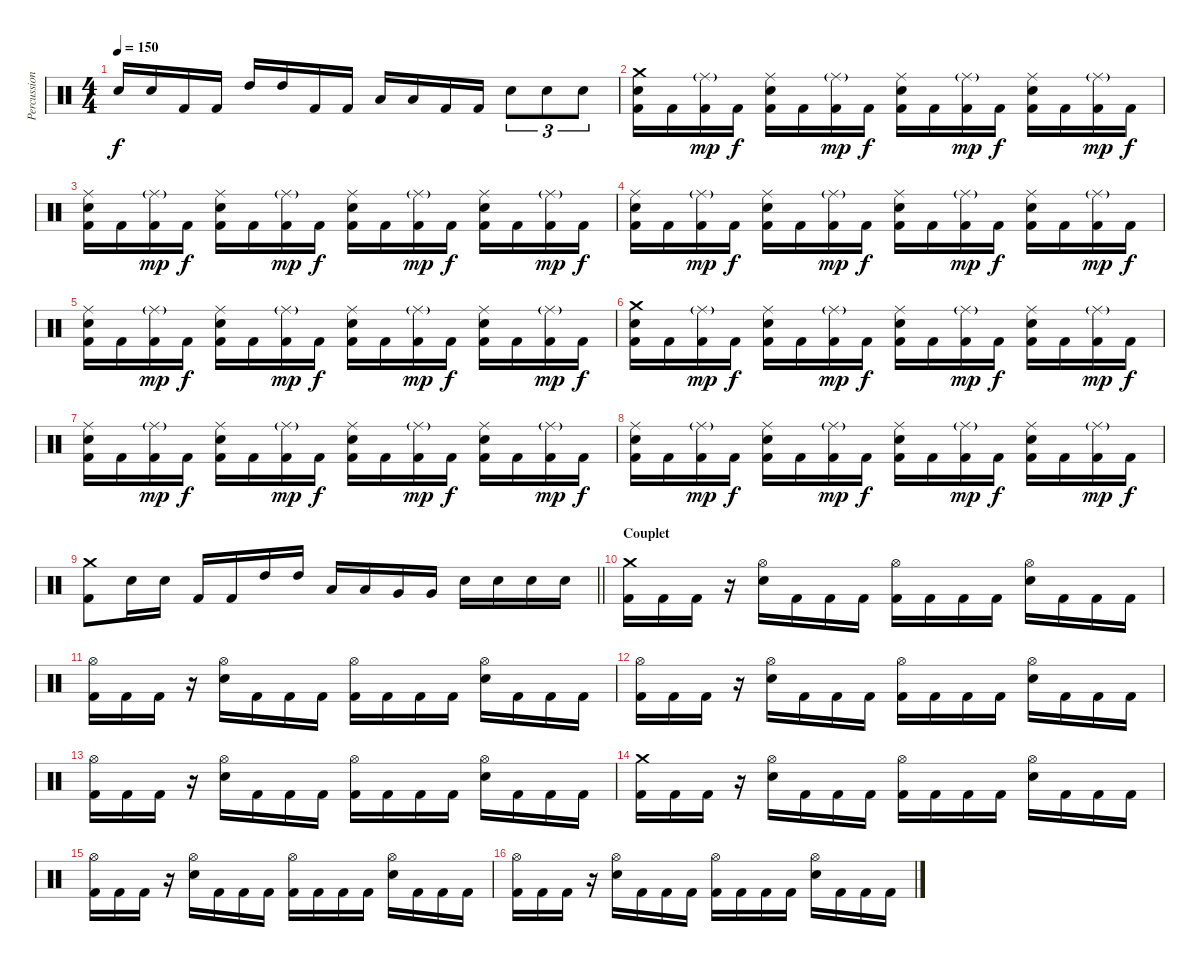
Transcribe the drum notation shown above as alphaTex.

\track ("Percussions" "Percussion") {instrument percussion}
\staff {score}
\articulation defaults
\ts (4 4)
\tempo 150
\clef neutral
\ks c "Snare (hit) 2".16{dy f} "Snare (hit) 2".16 "Kick (hit) 2".16 "Kick (hit) 2".16 "High Tom (hit)".16 "High Tom (hit)".16 "Kick (hit) 2".16 "Kick (hit) 2".16 "Low Tom (hit)".16 "Low Tom (hit)".16 "Kick (hit) 2".16 "Kick (hit) 2".16 "Snare (hit) 2".8{tu (3 2)} "Snare (hit) 2".8{tu (3 2)} "Snare (hit) 2".8{tu (3 2)}
|
("Crash medium (hit)" "Snare (hit) 2" "Kick (hit) 2").16 "Kick (hit) 2".16 ("Ride (middle)"{g} "Kick (hit) 2").16{dy mp} "Kick (hit) 2".16{dy f} ("Ride (middle)" "Snare (hit) 2" "Kick (hit) 2").16 "Kick (hit) 2".16 ("Ride (middle)"{g} "Kick (hit) 2").16{dy mp} "Kick (hit) 2".16{dy f} ("Ride (middle)" "Snare (hit) 2" "Kick (hit) 2").16 "Kick (hit) 2".16 ("Ride (middle)"{g} "Kick (hit) 2").16{dy mp} "Kick (hit) 2".16{dy f} ("Ride (middle)" "Snare (hit) 2" "Kick (hit) 2").16 "Kick (hit) 2".16 ("Ride (middle)"{g} "Kick (hit) 2").16{dy mp} "Kick (hit) 2".16{dy f} |
("Ride (middle)" "Snare (hit) 2" "Kick (hit) 2").16 "Kick (hit) 2".16 ("Ride (middle)"{g} "Kick (hit) 2").16{dy mp} "Kick (hit) 2".16{dy f} ("Ride (middle)" "Snare (hit) 2" "Kick (hit) 2").16 "Kick (hit) 2".16 ("Ride (middle)"{g} "Kick (hit) 2").16{dy mp} "Kick (hit) 2".16{dy f} ("Ride (middle)" "Snare (hit) 2" "Kick (hit) 2").16 "Kick (hit) 2".16 ("Ride (middle)"{g} "Kick (hit) 2").16{dy mp} "Kick (hit) 2".16{dy f} ("Ride (middle)" "Snare (hit) 2" "Kick (hit) 2").16 "Kick (hit) 2".16 ("Ride (middle)"{g} "Kick (hit) 2").16{dy mp} "Kick (hit) 2".16{dy f} |
("Ride (middle)" "Snare (hit) 2" "Kick (hit) 2").16 "Kick (hit) 2".16 ("Ride (middle)"{g} "Kick (hit) 2").16{dy mp} "Kick (hit) 2".16{dy f} ("Ride (middle)" "Snare (hit) 2" "Kick (hit) 2").16 "Kick (hit) 2".16 ("Ride (middle)"{g} "Kick (hit) 2").16{dy mp} "Kick (hit) 2".16{dy f} ("Ride (middle)" "Snare (hit) 2" "Kick (hit) 2").16 "Kick (hit) 2".16 ("Ride (middle)"{g} "Kick (hit) 2").16{dy mp} "Kick (hit) 2".16{dy f} ("Ride (middle)" "Snare (hit) 2" "Kick (hit) 2").16 "Kick (hit) 2".16 ("Ride (middle)"{g} "Kick (hit) 2").16{dy mp} "Kick (hit) 2".16{dy f} |
("Ride (middle)" "Snare (hit) 2" "Kick (hit) 2").16 "Kick (hit) 2".16 ("Ride (middle)"{g} "Kick (hit) 2").16{dy mp} "Kick (hit) 2".16{dy f} ("Ride (middle)" "Snare (hit) 2" "Kick (hit) 2").16 "Kick (hit) 2".16 ("Ride (middle)"{g} "Kick (hit) 2").16{dy mp} "Kick (hit) 2".16{dy f} ("Ride (middle)" "Snare (hit) 2" "Kick (hit) 2").16 "Kick (hit) 2".16 ("Ride (middle)"{g} "Kick (hit) 2").16{dy mp} "Kick (hit) 2".16{dy f} ("Ride (middle)" "Snare (hit) 2" "Kick (hit) 2").16 "Kick (hit) 2".16 ("Ride (middle)"{g} "Kick (hit) 2").16{dy mp} "Kick (hit) 2".16{dy f} |
("Crash medium (hit)" "Snare (hit) 2" "Kick (hit) 2").16 "Kick (hit) 2".16 ("Ride (middle)"{g} "Kick (hit) 2").16{dy mp} "Kick (hit) 2".16{dy f} ("Ride (middle)" "Snare (hit) 2" "Kick (hit) 2").16 "Kick (hit) 2".16 ("Ride (middle)"{g} "Kick (hit) 2").16{dy mp} "Kick (hit) 2".16{dy f} ("Ride (middle)" "Snare (hit) 2" "Kick (hit) 2").16 "Kick (hit) 2".16 ("Ride (middle)"{g} "Kick (hit) 2").16{dy mp} "Kick (hit) 2".16{dy f} ("Ride (middle)" "Snare (hit) 2" "Kick (hit) 2").16 "Kick (hit) 2".16 ("Ride (middle)"{g} "Kick (hit) 2").16{dy mp} "Kick (hit) 2".16{dy f} |
("Ride (middle)" "Snare (hit) 2" "Kick (hit) 2").16 "Kick (hit) 2".16 ("Ride (middle)"{g} "Kick (hit) 2").16{dy mp} "Kick (hit) 2".16{dy f} ("Ride (middle)" "Snare (hit) 2" "Kick (hit) 2").16 "Kick (hit) 2".16 ("Ride (middle)"{g} "Kick (hit) 2").16{dy mp} "Kick (hit) 2".16{dy f} ("Ride (middle)" "Snare (hit) 2" "Kick (hit) 2").16 "Kick (hit) 2".16 ("Ride (middle)"{g} "Kick (hit) 2").16{dy mp} "Kick (hit) 2".16{dy f} ("Ride (middle)" "Snare (hit) 2" "Kick (hit) 2").16 "Kick (hit) 2".16 ("Ride (middle)"{g} "Kick (hit) 2").16{dy mp} "Kick (hit) 2".16{dy f} |
("Ride (middle)" "Snare (hit) 2" "Kick (hit) 2").16 "Kick (hit) 2".16 ("Ride (middle)"{g} "Kick (hit) 2").16{dy mp} "Kick (hit) 2".16{dy f} ("Ride (middle)" "Snare (hit) 2" "Kick (hit) 2").16 "Kick (hit) 2".16 ("Ride (middle)"{g} "Kick (hit) 2").16{dy mp} "Kick (hit) 2".16{dy f} ("Ride (middle)" "Snare (hit) 2" "Kick (hit) 2").16 "Kick (hit) 2".16 ("Ride (middle)"{g} "Kick (hit) 2").16{dy mp} "Kick (hit) 2".16{dy f} ("Ride (middle)" "Snare (hit) 2" "Kick (hit) 2").16 "Kick (hit) 2".16 ("Ride (middle)"{g} "Kick (hit) 2").16{dy mp} "Kick (hit) 2".16{dy f} |
\barLineRight lightlight
("Crash medium (hit)" "Kick (hit) 2").8 "Snare (hit) 2".16 "Snare (hit) 2".16 "Kick (hit) 2".16 "Kick (hit) 2".16 "High Tom (hit)".16 "High Tom (hit)".16 "Low Tom (hit)".16 "Low Tom (hit)".16 "Very Low Tom (hit)".16 "Very Low Tom (hit)".16 "Snare (hit) 2".16 "Snare (hit) 2".16 "Snare (hit) 2".16 "Snare (hit) 2".16 |
\section ("" "Couplet")
("Crash medium (hit)" "Kick (hit) 2").16 "Kick (hit) 2".16 "Kick (hit) 2".16 r.16 ("Hi-Hat (open)" "Snare (hit) 2").16 "Kick (hit) 2".16 "Kick (hit) 2".16 "Kick (hit) 2".16 ("Hi-Hat (open)" "Kick (hit) 2").16 "Kick (hit) 2".16 "Kick (hit) 2".16 "Kick (hit) 2".16 ("Hi-Hat (open)" "Snare (hit) 2").16 "Kick (hit) 2".16 "Kick (hit) 2".16 "Kick (hit) 2".16 |
("Hi-Hat (open)" "Kick (hit) 2").16 "Kick (hit) 2".16 "Kick (hit) 2".16 r.16 ("Hi-Hat (open)" "Snare (hit) 2").16 "Kick (hit) 2".16 "Kick (hit) 2".16 "Kick (hit) 2".16 ("Hi-Hat (open)" "Kick (hit) 2").16 "Kick (hit) 2".16 "Kick (hit) 2".16 "Kick (hit) 2".16 ("Hi-Hat (open)" "Snare (hit) 2").16 "Kick (hit) 2".16 "Kick (hit) 2".16 "Kick (hit) 2".16 |
("Hi-Hat (open)" "Kick (hit) 2").16 "Kick (hit) 2".16 "Kick (hit) 2".16 r.16 ("Hi-Hat (open)" "Snare (hit) 2").16 "Kick (hit) 2".16 "Kick (hit) 2".16 "Kick (hit) 2".16 ("Hi-Hat (open)" "Kick (hit) 2").16 "Kick (hit) 2".16 "Kick (hit) 2".16 "Kick (hit) 2".16 ("Hi-Hat (open)" "Snare (hit) 2").16 "Kick (hit) 2".16 "Kick (hit) 2".16 "Kick (hit) 2".16 |
("Hi-Hat (open)" "Kick (hit) 2").16 "Kick (hit) 2".16 "Kick (hit) 2".16 r.16 ("Hi-Hat (open)" "Snare (hit) 2").16 "Kick (hit) 2".16 "Kick (hit) 2".16 "Kick (hit) 2".16 ("Hi-Hat (open)" "Kick (hit) 2").16 "Kick (hit) 2".16 "Kick (hit) 2".16 "Kick (hit) 2".16 ("Hi-Hat (open)" "Snare (hit) 2").16 "Kick (hit) 2".16 "Kick (hit) 2".16 "Kick (hit) 2".16 |
("Crash medium (hit)" "Kick (hit) 2").16 "Kick (hit) 2".16 "Kick (hit) 2".16 r.16 ("Hi-Hat (open)" "Snare (hit) 2").16 "Kick (hit) 2".16 "Kick (hit) 2".16 "Kick (hit) 2".16 ("Hi-Hat (open)" "Kick (hit) 2").16 "Kick (hit) 2".16 "Kick (hit) 2".16 "Kick (hit) 2".16 ("Hi-Hat (open)" "Snare (hit) 2").16 "Kick (hit) 2".16 "Kick (hit) 2".16 "Kick (hit) 2".16 |
("Hi-Hat (open)" "Kick (hit) 2").16 "Kick (hit) 2".16 "Kick (hit) 2".16 r.16 ("Hi-Hat (open)" "Snare (hit) 2").16 "Kick (hit) 2".16 "Kick (hit) 2".16 "Kick (hit) 2".16 ("Hi-Hat (open)" "Kick (hit) 2").16 "Kick (hit) 2".16 "Kick (hit) 2".16 "Kick (hit) 2".16 ("Hi-Hat (open)" "Snare (hit) 2").16 "Kick (hit) 2".16 "Kick (hit) 2".16 "Kick (hit) 2".16 |
("Hi-Hat (open)" "Kick (hit) 2").16 "Kick (hit) 2".16 "Kick (hit) 2".16 r.16 ("Hi-Hat (open)" "Snare (hit) 2").16 "Kick (hit) 2".16 "Kick (hit) 2".16 "Kick (hit) 2".16 ("Hi-Hat (open)" "Kick (hit) 2").16 "Kick (hit) 2".16 "Kick (hit) 2".16 "Kick (hit) 2".16 ("Hi-Hat (open)" "Snare (hit) 2").16 "Kick (hit) 2".16 "Kick (hit) 2".16 "Kick (hit) 2".16
